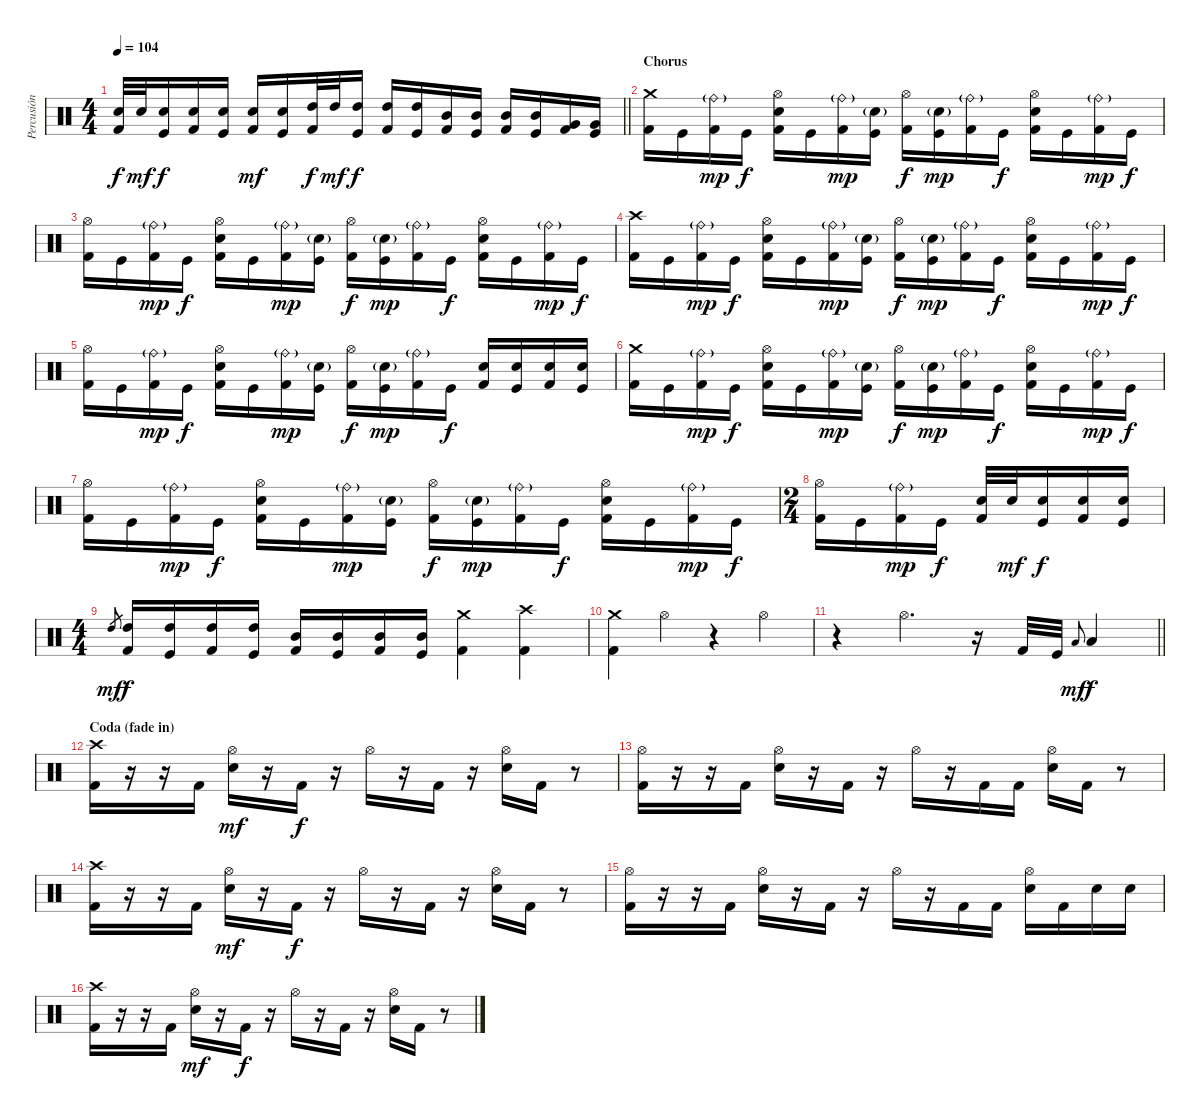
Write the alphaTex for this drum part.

\track ("Percusión" "Percusión") {instrument percussion}
\staff {score}
\articulation defaults
\ts (4 4)
\tempo 104
\clef neutral
\barLineRight lightlight
\ks c
("Snare (hit) 2" "Kick (hit) 2").32{dy f} "Snare (hit) 2".32{dy mf} ("Snare (hit) 2" "Kick (hit)").16{dy f} ("Snare (hit) 2" "Kick (hit) 2").16 ("Snare (hit) 2" "Kick (hit)").16 ("Snare (hit) 2" "Kick (hit) 2").16{dy mf} ("Snare (hit) 2" "Kick (hit)").16 ("High Tom (hit)" "Kick (hit) 2").32{dy f} "High Tom (hit)".32{dy mf} ("High Tom (hit)" "Kick (hit)").16{dy f} ("High Tom (hit)" "Kick (hit) 2").16 ("High Tom (hit)" "Kick (hit)").16 ("Mid Tom (hit)" "Kick (hit) 2").16 ("Mid Tom (hit)" "Kick (hit)").16 ("Mid Tom (hit)" "Kick (hit) 2").16 ("Mid Tom (hit)" "Kick (hit)").16 ("Very Low Tom (hit)" "Kick (hit) 2").16 ("Very Low Tom (hit)" "Kick (hit)").16 |
\section ("" "Chorus")
("Crash medium (hit)" "Kick (hit) 2").16 "Kick (hit)".16 ("Ride (bell)"{g} "Kick (hit) 2").16{dy mp} "Kick (hit)".16{dy f} ("Hi-Hat (open)" "Snare (hit) 2" "Kick (hit) 2").16 "Kick (hit)".16 ("Ride (bell)"{g} "Kick (hit) 2").16{dy mp} ("Snare (hit) 2"{g} "Kick (hit)").16 ("Hi-Hat (open)" "Kick (hit) 2").16{dy f} ("Snare (hit) 2"{g} "Kick (hit)").16{dy mp} ("Ride (bell)"{g} "Kick (hit) 2").16 "Kick (hit)".16{dy f} ("Hi-Hat (open)" "Snare (hit) 2" "Kick (hit) 2").16 "Kick (hit)".16 ("Ride (bell)"{g} "Kick (hit) 2").16{dy mp} "Kick (hit)".16{dy f} |
("Hi-Hat (open)" "Kick (hit) 2").16 "Kick (hit)".16 ("Ride (bell)"{g} "Kick (hit) 2").16{dy mp} "Kick (hit)".16{dy f} ("Hi-Hat (open)" "Snare (hit) 2" "Kick (hit) 2").16 "Kick (hit)".16 ("Ride (bell)"{g} "Kick (hit) 2").16{dy mp} ("Snare (hit) 2"{g} "Kick (hit)").16 ("Hi-Hat (open)" "Kick (hit) 2").16{dy f} ("Snare (hit) 2"{g} "Kick (hit)").16{dy mp} ("Ride (bell)"{g} "Kick (hit) 2").16 "Kick (hit)".16{dy f} ("Hi-Hat (open)" "Snare (hit) 2" "Kick (hit) 2").16 "Kick (hit)".16 ("Ride (bell)"{g} "Kick (hit) 2").16{dy mp} "Kick (hit)".16{dy f} |
("Crash high (hit)" "Kick (hit) 2").16 "Kick (hit)".16 ("Ride (bell)"{g} "Kick (hit) 2").16{dy mp} "Kick (hit)".16{dy f} ("Hi-Hat (open)" "Snare (hit) 2" "Kick (hit) 2").16 "Kick (hit)".16 ("Ride (bell)"{g} "Kick (hit) 2").16{dy mp} ("Snare (hit) 2"{g} "Kick (hit)").16 ("Hi-Hat (open)" "Kick (hit) 2").16{dy f} ("Snare (hit) 2"{g} "Kick (hit)").16{dy mp} ("Ride (bell)"{g} "Kick (hit) 2").16 "Kick (hit)".16{dy f} ("Hi-Hat (open)" "Snare (hit) 2" "Kick (hit) 2").16 "Kick (hit)".16 ("Ride (bell)"{g} "Kick (hit) 2").16{dy mp} "Kick (hit)".16{dy f} |
("Hi-Hat (open)" "Kick (hit) 2").16 "Kick (hit)".16 ("Ride (bell)"{g} "Kick (hit) 2").16{dy mp} "Kick (hit)".16{dy f} ("Hi-Hat (open)" "Snare (hit) 2" "Kick (hit) 2").16 "Kick (hit)".16 ("Ride (bell)"{g} "Kick (hit) 2").16{dy mp} ("Snare (hit) 2"{g} "Kick (hit)").16 ("Hi-Hat (open)" "Kick (hit) 2").16{dy f} ("Snare (hit) 2"{g} "Kick (hit)").16{dy mp} ("Ride (bell)"{g} "Kick (hit) 2").16 "Kick (hit)".16{dy f} ("Snare (hit) 2" "Kick (hit) 2").16 ("Snare (hit) 2" "Kick (hit)").16 ("Snare (hit) 2" "Kick (hit) 2").16 ("Snare (hit) 2" "Kick (hit)").16 |
("Crash medium (hit)" "Kick (hit) 2").16 "Kick (hit)".16 ("Ride (bell)"{g} "Kick (hit) 2").16{dy mp} "Kick (hit)".16{dy f} ("Hi-Hat (open)" "Snare (hit) 2" "Kick (hit) 2").16 "Kick (hit)".16 ("Ride (bell)"{g} "Kick (hit) 2").16{dy mp} ("Snare (hit) 2"{g} "Kick (hit)").16 ("Hi-Hat (open)" "Kick (hit) 2").16{dy f} ("Snare (hit) 2"{g} "Kick (hit)").16{dy mp} ("Ride (bell)"{g} "Kick (hit) 2").16 "Kick (hit)".16{dy f} ("Hi-Hat (open)" "Snare (hit) 2" "Kick (hit) 2").16 "Kick (hit)".16 ("Ride (bell)"{g} "Kick (hit) 2").16{dy mp} "Kick (hit)".16{dy f} |
("Hi-Hat (open)" "Kick (hit) 2").16 "Kick (hit)".16 ("Ride (bell)"{g} "Kick (hit) 2").16{dy mp} "Kick (hit)".16{dy f} ("Hi-Hat (open)" "Snare (hit) 2" "Kick (hit) 2").16 "Kick (hit)".16 ("Ride (bell)"{g} "Kick (hit) 2").16{dy mp} ("Snare (hit) 2"{g} "Kick (hit)").16 ("Hi-Hat (open)" "Kick (hit) 2").16{dy f} ("Snare (hit) 2"{g} "Kick (hit)").16{dy mp} ("Ride (bell)"{g} "Kick (hit) 2").16 "Kick (hit)".16{dy f} ("Hi-Hat (open)" "Snare (hit) 2" "Kick (hit) 2").16 "Kick (hit)".16 ("Ride (bell)"{g} "Kick (hit) 2").16{dy mp} "Kick (hit)".16{dy f} |
\ts (2 4)
("Hi-Hat (open)" "Kick (hit) 2").16 "Kick (hit)".16 ("Ride (bell)"{g} "Kick (hit) 2").16{dy mp} "Kick (hit)".16{dy f} ("Snare (hit) 2" "Kick (hit) 2").32 "Snare (hit) 2".32{dy mf} ("Snare (hit) 2" "Kick (hit)").16{dy f} ("Snare (hit) 2" "Kick (hit) 2").16 ("Snare (hit) 2" "Kick (hit)").16 |
\ts (4 4)
"High Tom (hit)".8{gr dy mf} ("High Tom (hit)" "Kick (hit) 2").16{dy f} ("High Tom (hit)" "Kick (hit)").16 ("High Tom (hit)" "Kick (hit) 2").16 ("High Tom (hit)" "Kick (hit)").16 ("Mid Tom (hit)" "Kick (hit) 2").16 ("Mid Tom (hit)" "Kick (hit)").16 ("Mid Tom (hit)" "Kick (hit) 2").16 ("Mid Tom (hit)" "Kick (hit)").16 ("Crash medium (hit)" "Kick (hit) 2").4 ("Crash high (hit)" "Kick (hit) 2").4 |
("Crash medium (hit)" "Kick (hit) 2").4 "Hi-Hat (open)".4 r.4 "Hi-Hat (open)".4 |
\barLineRight lightlight
r.4 "Hi-Hat (open)".4{d} r.16 "Kick (hit) 2".32 "Kick (hit)".32 "Low Floor Tom (hit)".8{gr onbeat dy mf} "Low Floor Tom (hit)".4{dy f} |
\section ("" "Coda (fade in)")
("Crash high (hit)" "Kick (hit) 2").16 r.16 r.16 "Kick (hit) 2".16 ("Hi-Hat (open)" "Snare (hit) 2").16{dy mf} r.16 "Kick (hit) 2".16{dy f} r.16 "Hi-Hat (open)".16 r.16 "Kick (hit) 2".16 r.16 ("Hi-Hat (open)" "Snare (hit) 2").16 "Kick (hit) 2".16 r.8 |
("Hi-Hat (open)" "Kick (hit) 2").16 r.16 r.16 "Kick (hit) 2".16 ("Hi-Hat (open)" "Snare (hit) 2").16 r.16 "Kick (hit) 2".16 r.16 "Hi-Hat (open)".16 r.16 "Kick (hit) 2".16 "Kick (hit) 2".16 ("Hi-Hat (open)" "Snare (hit) 2").16 "Kick (hit) 2".16 r.8 |
("Crash high (hit)" "Kick (hit) 2").16 r.16 r.16 "Kick (hit) 2".16 ("Hi-Hat (open)" "Snare (hit) 2").16{dy mf} r.16 "Kick (hit) 2".16{dy f} r.16 "Hi-Hat (open)".16 r.16 "Kick (hit) 2".16 r.16 ("Hi-Hat (open)" "Snare (hit) 2").16 "Kick (hit) 2".16 r.8 |
("Hi-Hat (open)" "Kick (hit) 2").16 r.16 r.16 "Kick (hit) 2".16 ("Hi-Hat (open)" "Snare (hit) 2").16 r.16 "Kick (hit) 2".16 r.16 "Hi-Hat (open)".16 r.16 "Kick (hit) 2".16 "Kick (hit) 2".16 ("Hi-Hat (open)" "Snare (hit) 2").16 "Kick (hit) 2".16 "Snare (hit) 2".16 "Snare (hit) 2".16 |
("Crash high (hit)" "Kick (hit) 2").16 r.16 r.16 "Kick (hit) 2".16 ("Hi-Hat (open)" "Snare (hit) 2").16{dy mf} r.16 "Kick (hit) 2".16{dy f} r.16 "Hi-Hat (open)".16 r.16 "Kick (hit) 2".16 r.16 ("Hi-Hat (open)" "Snare (hit) 2").16 "Kick (hit) 2".16 r.8
